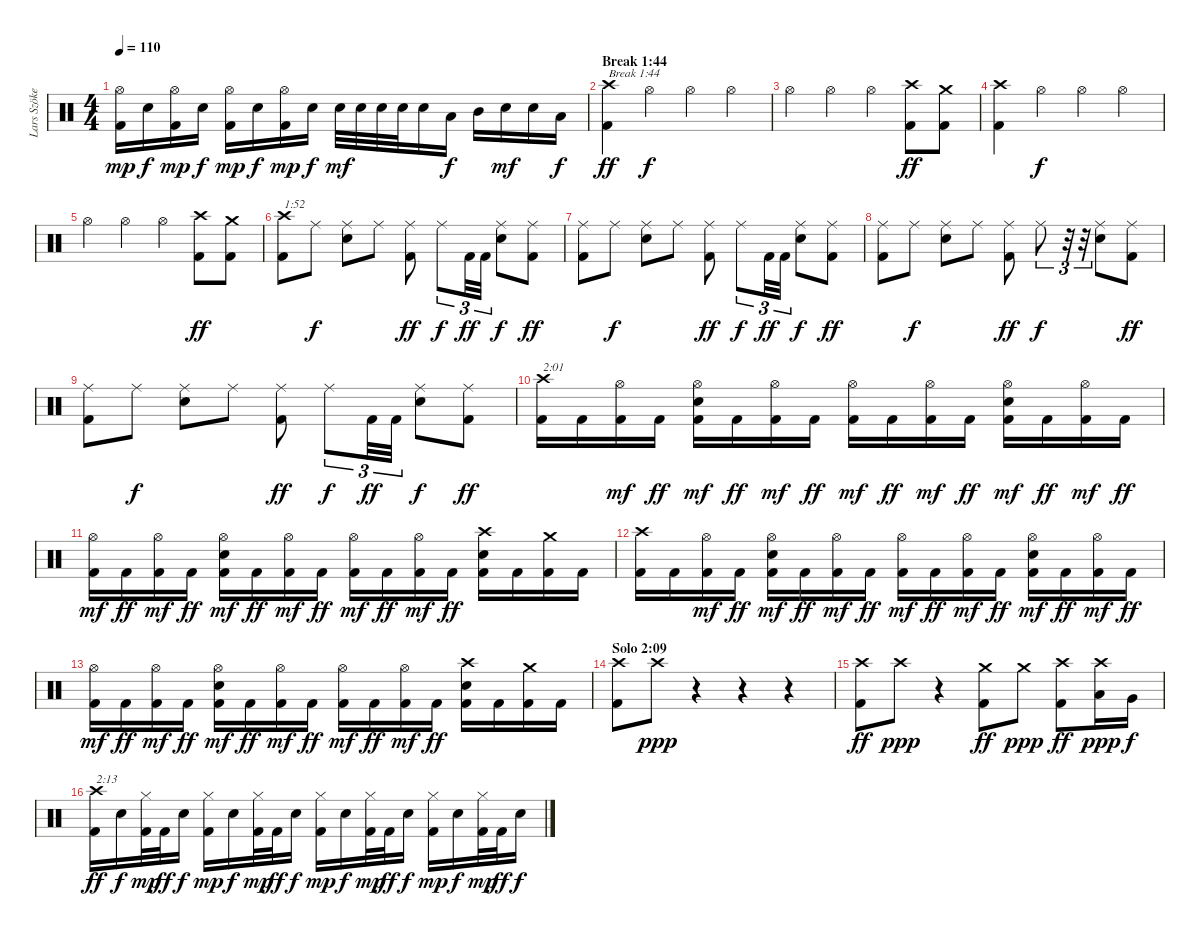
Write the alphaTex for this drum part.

\track ("Lars Szöke (Drums)" "Lars Szöke") {instrument percussion}
\staff {score}
\articulation defaults
\ts (4 4)
\tempo 110
\clef neutral
\ks c
("Kick (hit) 2" "Hi-Hat (open)").16{dy mp} "Electric Snare (hit)".16{dy f} ("Kick (hit) 2" "Hi-Hat (open)").16{dy mp} "Electric Snare (hit)".16{dy f} ("Kick (hit) 2" "Hi-Hat (open)").16{dy mp} "Electric Snare (hit)".16{dy f} ("Kick (hit) 2" "Hi-Hat (open)").16{dy mp} "Electric Snare (hit)".16{dy f} "Electric Snare (hit)".32{dy mf} "Electric Snare (hit)".32 "Electric Snare (hit)".32 "Electric Snare (hit)".32 "Electric Snare (hit)".16 "Low Tom (hit)".16{dy f} "Mid Tom (hit)".16 "Electric Snare (hit)".16{dy mf} "Electric Snare (hit)".16 "Low Tom (hit)".16{dy f} |
\section ("" "Break 1:44")
("Kick (hit) 2" "Crash high (hit)").4{txt "Break 1:44" dy ff} "Hi-Hat (open)".4{dy f} "Hi-Hat (open)".4 "Hi-Hat (open)".4 |
"Hi-Hat (open)".4 "Hi-Hat (open)".4 "Hi-Hat (open)".4 ("Kick (hit) 2" "Crash high (hit)").8{dy ff} ("Kick (hit) 2" "Crash medium (hit)").8 |
("Kick (hit) 2" "Crash high (hit)").4 "Hi-Hat (open)".4{dy f} "Hi-Hat (open)".4 "Hi-Hat (open)".4 |
"Hi-Hat (open)".4 "Hi-Hat (open)".4 "Hi-Hat (open)".4 ("Kick (hit) 2" "Crash high (hit)").8{dy ff} ("Kick (hit) 2" "Crash medium (hit)").8 |
("Kick (hit) 2" "Crash high (hit)").8{txt "1:52"} "Ride (middle)".8{dy f} ("Electric Snare (hit)" "Ride (middle)").8 "Ride (middle)".8 ("Kick (hit) 2" "Ride (middle)").8{dy ff} "Ride (middle)".8{tu (3 2) dy f} "Kick (hit) 2".32{tu (3 2) dy ff} "Kick (hit) 2".32{tu (3 2)} ("Electric Snare (hit)" "Ride (middle)").8{dy f} ("Kick (hit) 2" "Ride (middle)").8{dy ff} |
("Kick (hit) 2" "Ride (middle)").8 "Ride (middle)".8{dy f} ("Electric Snare (hit)" "Ride (middle)").8 "Ride (middle)".8 ("Kick (hit) 2" "Ride (middle)").8{dy ff} "Ride (middle)".8{tu (3 2) dy f} "Kick (hit) 2".32{tu (3 2) dy ff} "Kick (hit) 2".32{tu (3 2)} ("Electric Snare (hit)" "Ride (middle)").8{dy f} ("Kick (hit) 2" "Ride (middle)").8{dy ff} |
("Kick (hit) 2" "Ride (middle)").8 "Ride (middle)".8{dy f} ("Electric Snare (hit)" "Ride (middle)").8 "Ride (middle)".8 ("Kick (hit) 2" "Ride (middle)").8{dy ff} "Ride (middle)".8{tu (3 2) dy f} r.32{tu (3 2)} r.32{tu (3 2)} ("Electric Snare (hit)" "Ride (middle)").8 ("Kick (hit) 2" "Ride (middle)").8{dy ff} |
("Kick (hit) 2" "Ride (middle)").8 "Ride (middle)".8{dy f} ("Electric Snare (hit)" "Ride (middle)").8 "Ride (middle)".8 ("Kick (hit) 2" "Ride (middle)").8{dy ff} "Ride (middle)".8{tu (3 2) dy f} "Kick (hit) 2".32{tu (3 2) dy ff} "Kick (hit) 2".32{tu (3 2)} ("Electric Snare (hit)" "Ride (middle)").8{dy f} ("Kick (hit) 2" "Ride (middle)").8{dy ff} |
("Kick (hit) 2" "Crash high (hit)").16{txt "2:01"} "Kick (hit) 2".16 ("Kick (hit) 2" "Hi-Hat (open)").16{dy mf} "Kick (hit) 2".16{dy ff} ("Kick (hit) 2" "Electric Snare (hit)" "Hi-Hat (open)").16{dy mf} "Kick (hit) 2".16{dy ff} ("Kick (hit) 2" "Hi-Hat (open)").16{dy mf} "Kick (hit) 2".16{dy ff} ("Kick (hit) 2" "Hi-Hat (open)").16{dy mf} "Kick (hit) 2".16{dy ff} ("Kick (hit) 2" "Hi-Hat (open)").16{dy mf} "Kick (hit) 2".16{dy ff} ("Kick (hit) 2" "Electric Snare (hit)" "Hi-Hat (open)").16{dy mf} "Kick (hit) 2".16{dy ff} ("Kick (hit) 2" "Hi-Hat (open)").16{dy mf} "Kick (hit) 2".16{dy ff} |
("Kick (hit) 2" "Hi-Hat (open)").16{dy mf} "Kick (hit) 2".16{dy ff} ("Kick (hit) 2" "Hi-Hat (open)").16{dy mf} "Kick (hit) 2".16{dy ff} ("Kick (hit) 2" "Electric Snare (hit)" "Hi-Hat (open)").16{dy mf} "Kick (hit) 2".16{dy ff} ("Kick (hit) 2" "Hi-Hat (open)").16{dy mf} "Kick (hit) 2".16{dy ff} ("Kick (hit) 2" "Hi-Hat (open)").16{dy mf} "Kick (hit) 2".16{dy ff} ("Kick (hit) 2" "Hi-Hat (open)").16{dy mf} "Kick (hit) 2".16{dy ff} ("Kick (hit) 2" "Electric Snare (hit)" "Crash high (hit)").16 "Kick (hit) 2".16 ("Kick (hit) 2" "Crash medium (hit)").16 "Kick (hit) 2".16 |
("Kick (hit) 2" "Crash high (hit)").16 "Kick (hit) 2".16 ("Kick (hit) 2" "Hi-Hat (open)").16{dy mf} "Kick (hit) 2".16{dy ff} ("Kick (hit) 2" "Electric Snare (hit)" "Hi-Hat (open)").16{dy mf} "Kick (hit) 2".16{dy ff} ("Kick (hit) 2" "Hi-Hat (open)").16{dy mf} "Kick (hit) 2".16{dy ff} ("Kick (hit) 2" "Hi-Hat (open)").16{dy mf} "Kick (hit) 2".16{dy ff} ("Kick (hit) 2" "Hi-Hat (open)").16{dy mf} "Kick (hit) 2".16{dy ff} ("Kick (hit) 2" "Electric Snare (hit)" "Hi-Hat (open)").16{dy mf} "Kick (hit) 2".16{dy ff} ("Kick (hit) 2" "Hi-Hat (open)").16{dy mf} "Kick (hit) 2".16{dy ff} |
("Kick (hit) 2" "Hi-Hat (open)").16{dy mf} "Kick (hit) 2".16{dy ff} ("Kick (hit) 2" "Hi-Hat (open)").16{dy mf} "Kick (hit) 2".16{dy ff} ("Kick (hit) 2" "Electric Snare (hit)" "Hi-Hat (open)").16{dy mf} "Kick (hit) 2".16{dy ff} ("Kick (hit) 2" "Hi-Hat (open)").16{dy mf} "Kick (hit) 2".16{dy ff} ("Kick (hit) 2" "Hi-Hat (open)").16{dy mf} "Kick (hit) 2".16{dy ff} ("Kick (hit) 2" "Hi-Hat (open)").16{dy mf} "Kick (hit) 2".16{dy ff} ("Kick (hit) 2" "Electric Snare (hit)" "Crash high (hit)").16 "Kick (hit) 2".16 ("Kick (hit) 2" "Crash medium (hit)").16 "Kick (hit) 2".16 |
\section ("" "Solo 2:09")
("Kick (hit) 2" "Crash high (hit)").8 "Crash high (hit)".8{dy ppp} r.4 r.4 r.4 |
("Kick (hit) 2" "Crash high (hit)").8{dy ff} "Crash high (hit)".8{dy ppp} r.4 ("Kick (hit) 2" "Crash medium (hit)").8{dy ff} "Crash medium (hit)".8{dy ppp} ("Kick (hit) 2" "Crash high (hit)").8{dy ff} ("Low Tom (hit)" "Crash high (hit)").16{dy ppp} "Very Low Tom (hit)".16{dy f} |
("Kick (hit) 2" "Crash high (hit)").16{txt "2:13" dy ff} "Electric Snare (hit)".16{dy f} ("Kick (hit) 2" "Hi-Hat (closed)").32{dy mp} "Kick (hit) 2".32{dy ff} "Electric Snare (hit)".16{dy f} ("Kick (hit) 2" "Hi-Hat (closed)").16{dy mp} "Electric Snare (hit)".16{dy f} ("Kick (hit) 2" "Hi-Hat (closed)").32{dy mp} "Kick (hit) 2".32{dy ff} "Electric Snare (hit)".16{dy f} ("Kick (hit) 2" "Hi-Hat (closed)").16{dy mp} "Electric Snare (hit)".16{dy f} ("Kick (hit) 2" "Hi-Hat (closed)").32{dy mp} "Kick (hit) 2".32{dy ff} "Electric Snare (hit)".16{dy f} ("Kick (hit) 2" "Hi-Hat (closed)").16{dy mp} "Electric Snare (hit)".16{dy f} ("Kick (hit) 2" "Hi-Hat (closed)").32{dy mp} "Kick (hit) 2".32{dy ff} "Electric Snare (hit)".16{dy f}
